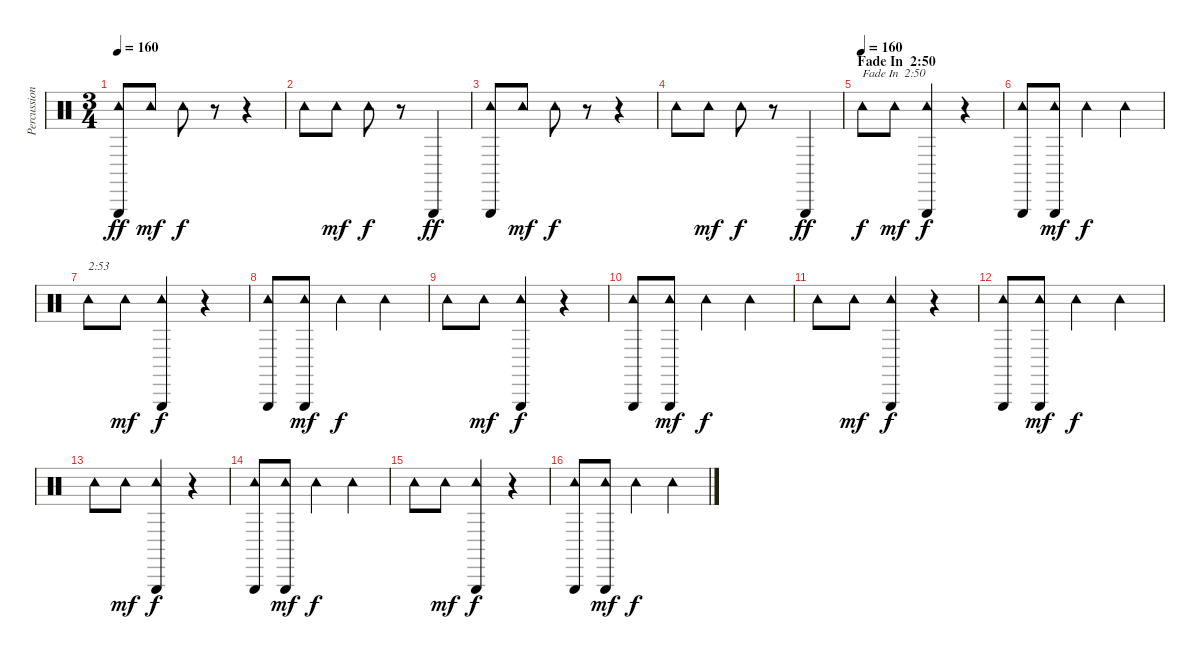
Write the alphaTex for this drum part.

\track ("Percussion" "Percussion") {instrument percussion}
\staff {score}
\articulation defaults
\ts (3 4)
\tempo 160
\clef neutral
\ks c
("Tambourine (hit)" "Triangle (hit)").8{dy ff} "Tambourine (hit)".8{dy mf} "Tambourine (hit)".8{dy f} r.8 r.4 |
"Tambourine (hit)".8 "Tambourine (hit)".8{dy mf} "Tambourine (hit)".8{dy f} r.8 "Triangle (hit)".4{dy ff} |
("Tambourine (hit)" "Triangle (hit)").8 "Tambourine (hit)".8{dy mf} "Tambourine (hit)".8{dy f} r.8 r.4 |
"Tambourine (hit)".8 "Tambourine (hit)".8{dy mf} "Tambourine (hit)".8{dy f} r.8 "Triangle (hit)".4{dy ff} |
\section ("" "Fade In  2:50")
\tempo (160)
"Tambourine (hit)".8{txt "Fade In  2:50" dy f} "Tambourine (hit)".8{dy mf} ("Tambourine (hit)" "Triangle (hit)").4{dy f} r.4 |
("Tambourine (hit)" "Triangle (hit)").8 ("Tambourine (hit)" "Triangle (hit)").8{dy mf} "Tambourine (hit)".4{dy f} "Tambourine (hit)".4 |
"Tambourine (hit)".8{txt "2:53"} "Tambourine (hit)".8{dy mf} ("Tambourine (hit)" "Triangle (hit)").4{dy f} r.4 |
("Tambourine (hit)" "Triangle (hit)").8 ("Tambourine (hit)" "Triangle (hit)").8{dy mf} "Tambourine (hit)".4{dy f} "Tambourine (hit)".4 |
"Tambourine (hit)".8 "Tambourine (hit)".8{dy mf} ("Tambourine (hit)" "Triangle (hit)").4{dy f} r.4 |
("Tambourine (hit)" "Triangle (hit)").8 ("Tambourine (hit)" "Triangle (hit)").8{dy mf} "Tambourine (hit)".4{dy f} "Tambourine (hit)".4 |
"Tambourine (hit)".8 "Tambourine (hit)".8{dy mf} ("Tambourine (hit)" "Triangle (hit)").4{dy f} r.4 |
("Tambourine (hit)" "Triangle (hit)").8 ("Tambourine (hit)" "Triangle (hit)").8{dy mf} "Tambourine (hit)".4{dy f} "Tambourine (hit)".4 |
"Tambourine (hit)".8 "Tambourine (hit)".8{dy mf} ("Tambourine (hit)" "Triangle (hit)").4{dy f} r.4 |
("Tambourine (hit)" "Triangle (hit)").8 ("Tambourine (hit)" "Triangle (hit)").8{dy mf} "Tambourine (hit)".4{dy f} "Tambourine (hit)".4 |
"Tambourine (hit)".8 "Tambourine (hit)".8{dy mf} ("Tambourine (hit)" "Triangle (hit)").4{dy f} r.4 |
("Tambourine (hit)" "Triangle (hit)").8 ("Tambourine (hit)" "Triangle (hit)").8{dy mf} "Tambourine (hit)".4{dy f} "Tambourine (hit)".4
